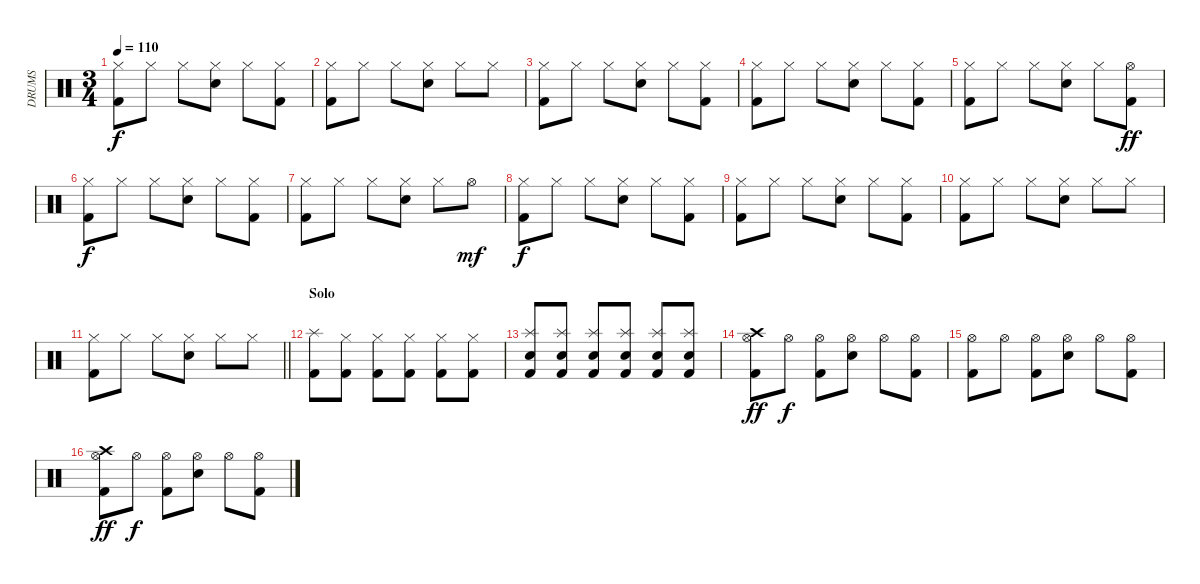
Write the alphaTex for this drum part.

\track ("DRUMS" "DRUMS") {instrument percussion}
\staff {score}
\articulation defaults
\ts (3 4)
\tempo 110
\clef neutral
\ks c
("Hi-Hat (closed)" "Kick (hit) 2").8{dy f} "Hi-Hat (closed)".8 "Hi-Hat (closed)".8 ("Hi-Hat (closed)" "Snare (hit) 2").8 "Hi-Hat (closed)".8 ("Hi-Hat (closed)" "Kick (hit) 2").8 |
("Hi-Hat (closed)" "Kick (hit) 2").8 "Hi-Hat (closed)".8 "Hi-Hat (closed)".8 ("Hi-Hat (closed)" "Snare (hit) 2").8 "Hi-Hat (closed)".8 "Hi-Hat (closed)".8 |
("Hi-Hat (closed)" "Kick (hit) 2").8 "Hi-Hat (closed)".8 "Hi-Hat (closed)".8 ("Hi-Hat (closed)" "Snare (hit) 2").8 "Hi-Hat (closed)".8 ("Hi-Hat (closed)" "Kick (hit) 2").8 |
("Hi-Hat (closed)" "Kick (hit) 2").8 "Hi-Hat (closed)".8 "Hi-Hat (closed)".8 ("Hi-Hat (closed)" "Snare (hit) 2").8 "Hi-Hat (closed)".8 ("Hi-Hat (closed)" "Kick (hit) 2").8 |
("Hi-Hat (closed)" "Kick (hit) 2").8 "Hi-Hat (closed)".8 "Hi-Hat (closed)".8 ("Hi-Hat (closed)" "Snare (hit) 2").8 "Hi-Hat (closed)".8 ("Hi-Hat (open)" "Kick (hit) 2").8{dy ff} |
("Hi-Hat (closed)" "Kick (hit) 2").8{dy f} "Hi-Hat (closed)".8 "Hi-Hat (closed)".8 ("Hi-Hat (closed)" "Snare (hit) 2").8 "Hi-Hat (closed)".8 ("Hi-Hat (closed)" "Kick (hit) 2").8 |
("Hi-Hat (closed)" "Kick (hit) 2").8 "Hi-Hat (closed)".8 "Hi-Hat (closed)".8 ("Hi-Hat (closed)" "Snare (hit) 2").8 "Hi-Hat (closed)".8 "Hi-Hat (open)".8{dy mf} |
("Hi-Hat (closed)" "Kick (hit) 2").8{dy f} "Hi-Hat (closed)".8 "Hi-Hat (closed)".8 ("Hi-Hat (closed)" "Snare (hit) 2").8 "Hi-Hat (closed)".8 ("Hi-Hat (closed)" "Kick (hit) 2").8 |
("Hi-Hat (closed)" "Kick (hit) 2").8 "Hi-Hat (closed)".8 "Hi-Hat (closed)".8 ("Hi-Hat (closed)" "Snare (hit) 2").8 "Hi-Hat (closed)".8 ("Hi-Hat (closed)" "Kick (hit) 2").8 |
("Hi-Hat (closed)" "Kick (hit) 2").8 "Hi-Hat (closed)".8 "Hi-Hat (closed)".8 ("Hi-Hat (closed)" "Snare (hit) 2").8 "Hi-Hat (closed)".8 "Hi-Hat (closed)".8 |
\barLineRight lightlight
("Hi-Hat (closed)" "Kick (hit) 2").8 "Hi-Hat (closed)".8 "Hi-Hat (closed)".8 ("Hi-Hat (closed)" "Snare (hit) 2").8 "Hi-Hat (closed)".8 "Hi-Hat (closed)".8 |
\section ("" "Solo")
("Kick (hit) 2" "Splash (hit)").8{volume 10} ("Kick (hit) 2" "Hi-Hat (closed)").8 ("Kick (hit) 2" "Hi-Hat (closed)").8 ("Kick (hit) 2" "Hi-Hat (closed)").8 ("Kick (hit) 2" "Hi-Hat (closed)").8 ("Kick (hit) 2" "Hi-Hat (closed)").8 |
("Kick (hit) 2" "Electric Snare (hit)" "Splash (hit)").8 ("Kick (hit) 2" "Electric Snare (hit)" "Splash (hit)").8 ("Kick (hit) 2" "Electric Snare (hit)" "Splash (hit)").8 ("Kick (hit) 2" "Electric Snare (hit)" "Splash (hit)").8 ("Kick (hit) 2" "Electric Snare (hit)" "Splash (hit)").8 ("Kick (hit) 2" "Electric Snare (hit)" "Splash (hit)").8 |
("Kick (hit) 2" "Hi-Hat (open)" "Crash high (hit)").8{dy ff} "Hi-Hat (open)".8{dy f} ("Kick (hit) 2" "Hi-Hat (open)").8 ("Electric Snare (hit)" "Hi-Hat (open)").8 "Hi-Hat (open)".8 ("Kick (hit) 2" "Hi-Hat (open)").8 |
("Kick (hit) 2" "Hi-Hat (open)").8 "Hi-Hat (open)".8 ("Kick (hit) 2" "Hi-Hat (open)").8 ("Electric Snare (hit)" "Hi-Hat (open)").8 "Hi-Hat (open)".8 ("Kick (hit) 2" "Hi-Hat (open)").8 |
("Kick (hit) 2" "Hi-Hat (open)" "Crash high (hit)").8{dy ff} "Hi-Hat (open)".8{dy f} ("Kick (hit) 2" "Hi-Hat (open)").8 ("Electric Snare (hit)" "Hi-Hat (open)").8 "Hi-Hat (open)".8 ("Kick (hit) 2" "Hi-Hat (open)").8
